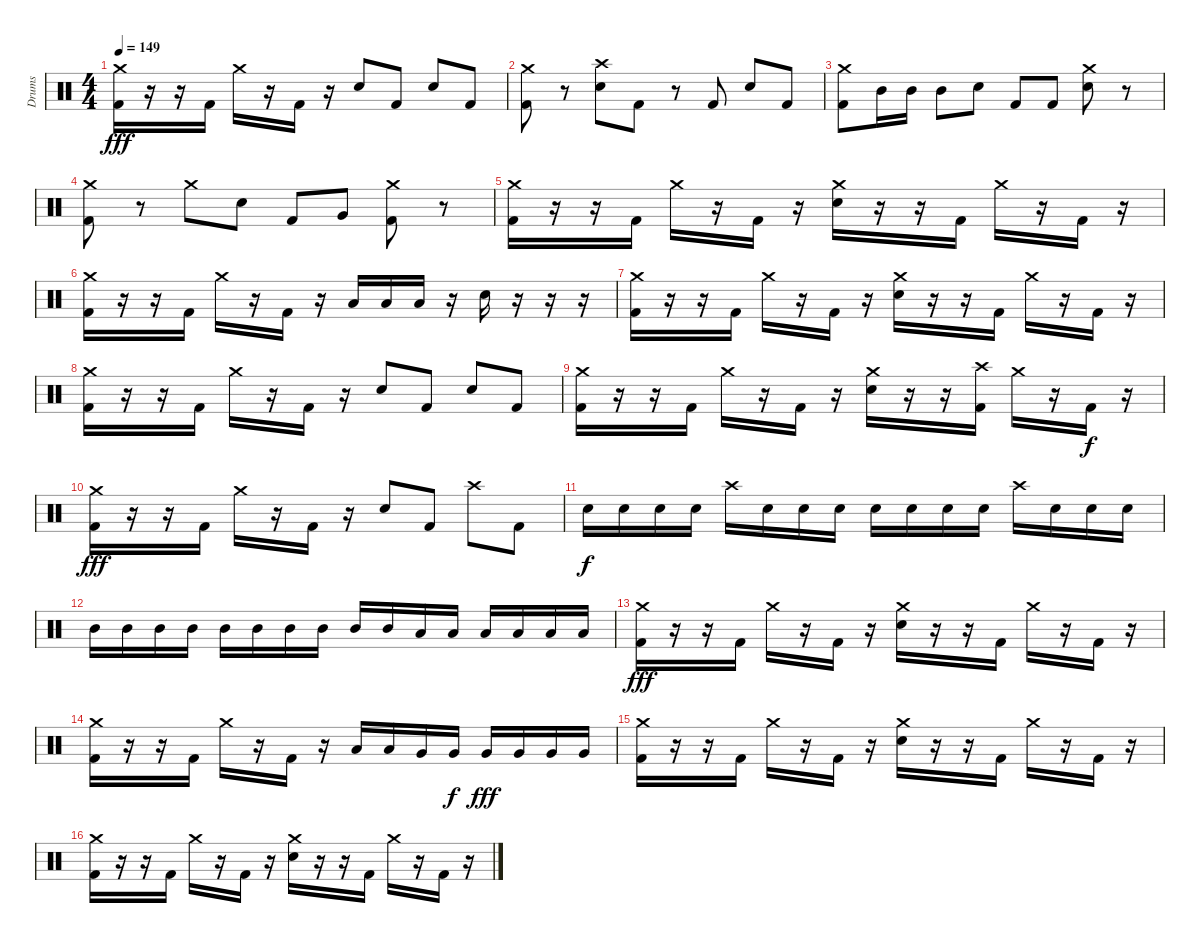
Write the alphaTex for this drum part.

\track ("Drums" "Drums") {instrument percussion}
\staff {score}
\articulation defaults
\ts (4 4)
\tempo 149
\clef neutral
\ks c
("Crash medium (hit)" "Kick (hit) 2").16{dy fff} r.16 r.16 "Kick (hit) 2".16 "Crash medium (hit)".16 r.16 "Kick (hit) 2".16 r.16 "Electric Snare (hit)".8 "Kick (hit) 2".8 "Electric Snare (hit)".8 "Kick (hit) 2".8 |
("Crash medium (hit)" "Kick (hit) 2").8 r.8 ("Crash high (hit)" "Electric Snare (hit)").8 "Kick (hit) 2".8 r.8 "Kick (hit) 2".8 "Electric Snare (hit)".8 "Kick (hit) 2".8 |
("Crash medium (hit)" "Kick (hit) 2").8 "Mid Tom (hit)".16 "Mid Tom (hit)".16 "Mid Tom (hit)".8 "Electric Snare (hit)".8 "Kick (hit) 2".8 "Kick (hit) 2".8 ("Crash medium (hit)" "Electric Snare (hit)").8 r.8 |
("Crash medium (hit)" "Kick (hit) 2").8 r.8 "Crash medium (hit)".8 "Electric Snare (hit)".8 "Kick (hit) 2".8 "Very Low Tom (hit)".8 ("Crash medium (hit)" "Kick (hit) 2").8 r.8 |
("Crash medium (hit)" "Kick (hit) 2").16 r.16 r.16 "Kick (hit) 2".16 "Crash medium (hit)".16 r.16 "Kick (hit) 2".16 r.16 ("Crash medium (hit)" "Electric Snare (hit)").16 r.16 r.16 "Kick (hit) 2".16 "Crash medium (hit)".16 r.16 "Kick (hit) 2".16 r.16 |
("Crash medium (hit)" "Kick (hit) 2").16 r.16 r.16 "Kick (hit) 2".16 "Crash medium (hit)".16 r.16 "Kick (hit) 2".16 r.16 "Low Tom (hit)".16 "Low Tom (hit)".16 "Low Tom (hit)".16 r.16 "Electric Snare (hit)".16 r.16 r.16 r.16 |
("Crash medium (hit)" "Kick (hit) 2").16 r.16 r.16 "Kick (hit) 2".16 "Crash medium (hit)".16 r.16 "Kick (hit) 2".16 r.16 ("Crash medium (hit)" "Electric Snare (hit)").16 r.16 r.16 "Kick (hit) 2".16 "Crash medium (hit)".16 r.16 "Kick (hit) 2".16 r.16 |
("Crash medium (hit)" "Kick (hit) 2").16 r.16 r.16 "Kick (hit) 2".16 "Crash medium (hit)".16 r.16 "Kick (hit) 2".16 r.16 "Electric Snare (hit)".8 "Kick (hit) 2".8 "Electric Snare (hit)".8 "Kick (hit) 2".8 |
("Crash medium (hit)" "Kick (hit) 2").16 r.16 r.16 "Kick (hit) 2".16 "Crash medium (hit)".16 r.16 "Kick (hit) 2".16 r.16 ("Crash medium (hit)" "Electric Snare (hit)").16 r.16 r.16 ("Crash high (hit)" "Kick (hit) 2").16 "Crash medium (hit)".16 r.16 "Kick (hit) 2".16{dy f} r.16 |
("Crash medium (hit)" "Kick (hit) 2").16{dy fff} r.16 r.16 "Kick (hit) 2".16 "Crash medium (hit)".16 r.16 "Kick (hit) 2".16 r.16 "Electric Snare (hit)".8 "Kick (hit) 2".8 "Crash high (hit)".8 "Kick (hit) 2".8 |
"Electric Snare (hit)".16{dy f} "Electric Snare (hit)".16 "Electric Snare (hit)".16 "Electric Snare (hit)".16 "Crash high (hit)".16 "Electric Snare (hit)".16 "Electric Snare (hit)".16 "Electric Snare (hit)".16 "Electric Snare (hit)".16 "Electric Snare (hit)".16 "Electric Snare (hit)".16 "Electric Snare (hit)".16 "Crash high (hit)".16 "Electric Snare (hit)".16 "Electric Snare (hit)".16 "Electric Snare (hit)".16 |
"Mid Tom (hit)".16 "Mid Tom (hit)".16 "Mid Tom (hit)".16 "Mid Tom (hit)".16 "Mid Tom (hit)".16 "Mid Tom (hit)".16 "Mid Tom (hit)".16 "Mid Tom (hit)".16 "Mid Tom (hit)".16 "Mid Tom (hit)".16 "Low Tom (hit)".16 "Low Tom (hit)".16 "Low Tom (hit)".16 "Low Tom (hit)".16 "Low Tom (hit)".16 "Low Tom (hit)".16 |
("Crash medium (hit)" "Kick (hit) 2").16{dy fff} r.16 r.16 "Kick (hit) 2".16 "Crash medium (hit)".16 r.16 "Kick (hit) 2".16 r.16 ("Crash medium (hit)" "Electric Snare (hit)").16 r.16 r.16 "Kick (hit) 2".16 "Crash medium (hit)".16 r.16 "Kick (hit) 2".16 r.16 |
("Crash medium (hit)" "Kick (hit) 2").16 r.16 r.16 "Kick (hit) 2".16 "Crash medium (hit)".16 r.16 "Kick (hit) 2".16 r.16 "Low Tom (hit)".16 "Low Tom (hit)".16 "Very Low Tom (hit)".16 "Very Low Tom (hit)".16{dy f} "Very Low Tom (hit)".16{dy fff} "Very Low Tom (hit)".16 "Very Low Tom (hit)".16 "Very Low Tom (hit)".16 |
("Crash medium (hit)" "Kick (hit) 2").16 r.16 r.16 "Kick (hit) 2".16 "Crash medium (hit)".16 r.16 "Kick (hit) 2".16 r.16 ("Crash medium (hit)" "Electric Snare (hit)").16 r.16 r.16 "Kick (hit) 2".16 "Crash medium (hit)".16 r.16 "Kick (hit) 2".16 r.16 |
("Crash medium (hit)" "Kick (hit) 2").16 r.16 r.16 "Kick (hit) 2".16 "Crash medium (hit)".16 r.16 "Kick (hit) 2".16 r.16 ("Crash medium (hit)" "Electric Snare (hit)").16 r.16 r.16 "Kick (hit) 2".16 "Crash medium (hit)".16 r.16 "Kick (hit) 2".16 r.16
